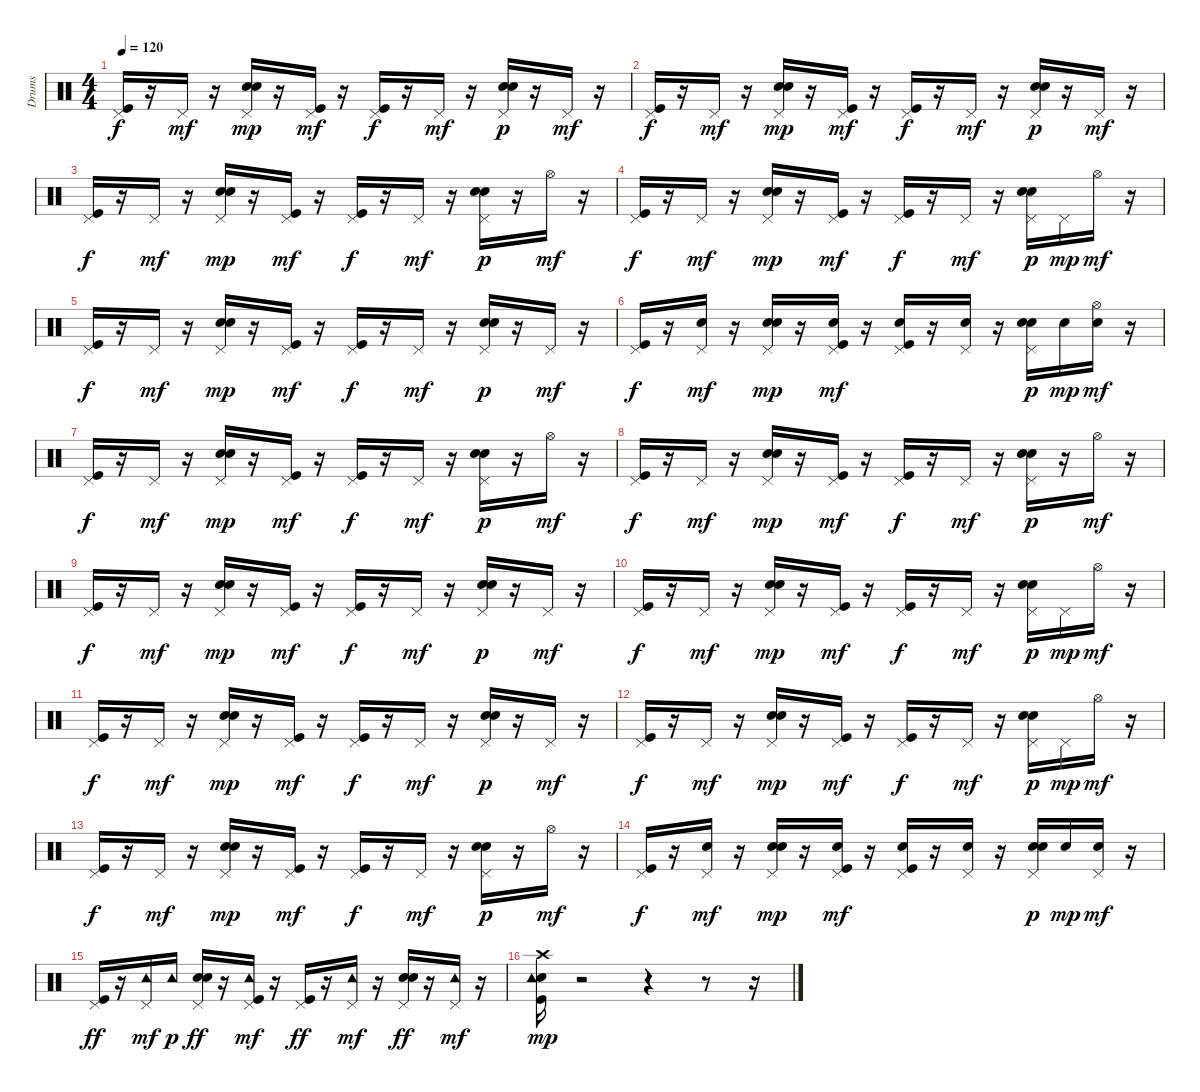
\track ("Drums   " "Drums   ") {instrument percussion}
\staff {score}
\articulation defaults
\ts (4 4)
\tempo 120
\clef neutral
\ks c
("Kick (hit)" "Pedal Hi-Hat (hit)").16{dy f} r.16 "Pedal Hi-Hat (hit)".16{dy mf} r.16 ("Electric Snare (hit)" "Pedal Hi-Hat (hit)" "Hand Clap (hit)").16{dy mp} r.16 ("Kick (hit)" "Pedal Hi-Hat (hit)").16{dy mf} r.16 ("Kick (hit)" "Pedal Hi-Hat (hit)").16{dy f} r.16 "Pedal Hi-Hat (hit)".16{dy mf} r.16 ("Electric Snare (hit)" "Pedal Hi-Hat (hit)" "Hand Clap (hit)").16{dy p} r.16 "Pedal Hi-Hat (hit)".16{dy mf} r.16 |
("Kick (hit)" "Pedal Hi-Hat (hit)").16{dy f} r.16 "Pedal Hi-Hat (hit)".16{dy mf} r.16 ("Electric Snare (hit)" "Pedal Hi-Hat (hit)" "Hand Clap (hit)").16{dy mp} r.16 ("Kick (hit)" "Pedal Hi-Hat (hit)").16{dy mf} r.16 ("Kick (hit)" "Pedal Hi-Hat (hit)").16{dy f} r.16 "Pedal Hi-Hat (hit)".16{dy mf} r.16 ("Electric Snare (hit)" "Pedal Hi-Hat (hit)" "Hand Clap (hit)").16{dy p} r.16 "Pedal Hi-Hat (hit)".16{dy mf} r.16 |
("Kick (hit)" "Pedal Hi-Hat (hit)").16{dy f} r.16 "Pedal Hi-Hat (hit)".16{dy mf} r.16 ("Electric Snare (hit)" "Pedal Hi-Hat (hit)" "Hand Clap (hit)").16{dy mp} r.16 ("Kick (hit)" "Pedal Hi-Hat (hit)").16{dy mf} r.16 ("Kick (hit)" "Pedal Hi-Hat (hit)").16{dy f} r.16 "Pedal Hi-Hat (hit)".16{dy mf} r.16 ("Electric Snare (hit)" "Pedal Hi-Hat (hit)" "Hand Clap (hit)").16{dy p} r.16 "Hi-Hat (open)".16{dy mf} r.16 |
("Kick (hit)" "Pedal Hi-Hat (hit)").16{dy f} r.16 "Pedal Hi-Hat (hit)".16{dy mf} r.16 ("Electric Snare (hit)" "Pedal Hi-Hat (hit)" "Hand Clap (hit)").16{dy mp} r.16 ("Kick (hit)" "Pedal Hi-Hat (hit)").16{dy mf} r.16 ("Kick (hit)" "Pedal Hi-Hat (hit)").16{dy f} r.16 "Pedal Hi-Hat (hit)".16{dy mf} r.16 ("Electric Snare (hit)" "Pedal Hi-Hat (hit)" "Hand Clap (hit)").16{dy p} "Pedal Hi-Hat (hit)".16{dy mp} "Hi-Hat (open)".16{dy mf} r.16 |
("Kick (hit)" "Pedal Hi-Hat (hit)").16{dy f} r.16 "Pedal Hi-Hat (hit)".16{dy mf} r.16 ("Electric Snare (hit)" "Pedal Hi-Hat (hit)" "Hand Clap (hit)").16{dy mp} r.16 ("Kick (hit)" "Pedal Hi-Hat (hit)").16{dy mf} r.16 ("Kick (hit)" "Pedal Hi-Hat (hit)").16{dy f} r.16 "Pedal Hi-Hat (hit)".16{dy mf} r.16 ("Electric Snare (hit)" "Pedal Hi-Hat (hit)" "Hand Clap (hit)").16{dy p} r.16 "Pedal Hi-Hat (hit)".16{dy mf} r.16 |
("Kick (hit)" "Pedal Hi-Hat (hit)").16{dy f} r.16 ("Electric Snare (hit)" "Pedal Hi-Hat (hit)").16{dy mf} r.16 ("Electric Snare (hit)" "Pedal Hi-Hat (hit)" "Hand Clap (hit)").16{dy mp} r.16 ("Kick (hit)" "Electric Snare (hit)" "Pedal Hi-Hat (hit)").16{dy mf} r.16 ("Kick (hit)" "Electric Snare (hit)" "Pedal Hi-Hat (hit)").16 r.16 ("Electric Snare (hit)" "Pedal Hi-Hat (hit)").16 r.16 ("Electric Snare (hit)" "Pedal Hi-Hat (hit)" "Hand Clap (hit)").16{dy p} "Electric Snare (hit)".16{dy mp} ("Hi-Hat (open)" "Electric Snare (hit)").16{dy mf} r.16 |
("Kick (hit)" "Pedal Hi-Hat (hit)").16{dy f} r.16 "Pedal Hi-Hat (hit)".16{dy mf} r.16 ("Electric Snare (hit)" "Pedal Hi-Hat (hit)" "Hand Clap (hit)").16{dy mp} r.16 ("Kick (hit)" "Pedal Hi-Hat (hit)").16{dy mf} r.16 ("Kick (hit)" "Pedal Hi-Hat (hit)").16{dy f} r.16 "Pedal Hi-Hat (hit)".16{dy mf} r.16 ("Electric Snare (hit)" "Pedal Hi-Hat (hit)" "Hand Clap (hit)").16{dy p} r.16 "Hi-Hat (open)".16{dy mf} r.16 |
("Kick (hit)" "Pedal Hi-Hat (hit)").16{dy f} r.16 "Pedal Hi-Hat (hit)".16{dy mf} r.16 ("Electric Snare (hit)" "Pedal Hi-Hat (hit)" "Hand Clap (hit)").16{dy mp} r.16 ("Kick (hit)" "Pedal Hi-Hat (hit)").16{dy mf} r.16 ("Kick (hit)" "Pedal Hi-Hat (hit)").16{dy f} r.16 "Pedal Hi-Hat (hit)".16{dy mf} r.16 ("Electric Snare (hit)" "Pedal Hi-Hat (hit)" "Hand Clap (hit)").16{dy p} r.16 "Hi-Hat (open)".16{dy mf} r.16 |
("Kick (hit)" "Pedal Hi-Hat (hit)").16{dy f} r.16 "Pedal Hi-Hat (hit)".16{dy mf} r.16 ("Electric Snare (hit)" "Pedal Hi-Hat (hit)" "Hand Clap (hit)").16{dy mp} r.16 ("Kick (hit)" "Pedal Hi-Hat (hit)").16{dy mf} r.16 ("Kick (hit)" "Pedal Hi-Hat (hit)").16{dy f} r.16 "Pedal Hi-Hat (hit)".16{dy mf} r.16 ("Electric Snare (hit)" "Pedal Hi-Hat (hit)" "Hand Clap (hit)").16{dy p} r.16 "Pedal Hi-Hat (hit)".16{dy mf} r.16 |
("Kick (hit)" "Pedal Hi-Hat (hit)").16{dy f} r.16 "Pedal Hi-Hat (hit)".16{dy mf} r.16 ("Electric Snare (hit)" "Pedal Hi-Hat (hit)" "Hand Clap (hit)").16{dy mp} r.16 ("Kick (hit)" "Pedal Hi-Hat (hit)").16{dy mf} r.16 ("Kick (hit)" "Pedal Hi-Hat (hit)").16{dy f} r.16 "Pedal Hi-Hat (hit)".16{dy mf} r.16 ("Electric Snare (hit)" "Pedal Hi-Hat (hit)" "Hand Clap (hit)").16{dy p} "Pedal Hi-Hat (hit)".16{dy mp} "Hi-Hat (open)".16{dy mf} r.16 |
("Kick (hit)" "Pedal Hi-Hat (hit)").16{dy f} r.16 "Pedal Hi-Hat (hit)".16{dy mf} r.16 ("Electric Snare (hit)" "Pedal Hi-Hat (hit)" "Hand Clap (hit)").16{dy mp} r.16 ("Kick (hit)" "Pedal Hi-Hat (hit)").16{dy mf} r.16 ("Kick (hit)" "Pedal Hi-Hat (hit)").16{dy f} r.16 "Pedal Hi-Hat (hit)".16{dy mf} r.16 ("Electric Snare (hit)" "Pedal Hi-Hat (hit)" "Hand Clap (hit)").16{dy p} r.16 "Pedal Hi-Hat (hit)".16{dy mf} r.16 |
("Kick (hit)" "Pedal Hi-Hat (hit)").16{dy f} r.16 "Pedal Hi-Hat (hit)".16{dy mf} r.16 ("Electric Snare (hit)" "Pedal Hi-Hat (hit)" "Hand Clap (hit)").16{dy mp} r.16 ("Kick (hit)" "Pedal Hi-Hat (hit)").16{dy mf} r.16 ("Kick (hit)" "Pedal Hi-Hat (hit)").16{dy f} r.16 "Pedal Hi-Hat (hit)".16{dy mf} r.16 ("Electric Snare (hit)" "Pedal Hi-Hat (hit)" "Hand Clap (hit)").16{dy p} "Pedal Hi-Hat (hit)".16{dy mp} "Hi-Hat (open)".16{dy mf} r.16 |
("Kick (hit)" "Pedal Hi-Hat (hit)").16{dy f} r.16 "Pedal Hi-Hat (hit)".16{dy mf} r.16 ("Electric Snare (hit)" "Pedal Hi-Hat (hit)" "Hand Clap (hit)").16{dy mp} r.16 ("Kick (hit)" "Pedal Hi-Hat (hit)").16{dy mf} r.16 ("Kick (hit)" "Pedal Hi-Hat (hit)").16{dy f} r.16 "Pedal Hi-Hat (hit)".16{dy mf} r.16 ("Electric Snare (hit)" "Pedal Hi-Hat (hit)" "Hand Clap (hit)").16{dy p} r.16 "Hi-Hat (open)".16{dy mf} r.16 |
("Kick (hit)" "Pedal Hi-Hat (hit)").16{dy f} r.16 ("Electric Snare (hit)" "Pedal Hi-Hat (hit)").16{dy mf} r.16 ("Electric Snare (hit)" "Pedal Hi-Hat (hit)" "Hand Clap (hit)").16{dy mp} r.16 ("Kick (hit)" "Electric Snare (hit)" "Pedal Hi-Hat (hit)").16{dy mf} r.16 ("Kick (hit)" "Electric Snare (hit)" "Pedal Hi-Hat (hit)").16 r.16 ("Electric Snare (hit)" "Pedal Hi-Hat (hit)").16 r.16 ("Electric Snare (hit)" "Pedal Hi-Hat (hit)" "Hand Clap (hit)").16{dy p} "Electric Snare (hit)".16{dy mp} ("Electric Snare (hit)" "Pedal Hi-Hat (hit)").16{dy mf} r.16 |
("Kick (hit)" "Pedal Hi-Hat (hit)").16{dy ff} r.16 ("Pedal Hi-Hat (hit)" "Tambourine (hit)").16{dy mf} "Tambourine (hit)".16{dy p} ("Electric Snare (hit)" "Pedal Hi-Hat (hit)" "Hand Clap (hit)").16{dy ff} r.16 ("Kick (hit)" "Pedal Hi-Hat (hit)" "Tambourine (hit)").16{dy mf} r.16 ("Kick (hit)" "Pedal Hi-Hat (hit)").16{dy ff} r.16 ("Pedal Hi-Hat (hit)" "Tambourine (hit)").16{dy mf} r.16 ("Electric Snare (hit)" "Pedal Hi-Hat (hit)" "Hand Clap (hit)").16{dy ff} r.16 ("Pedal Hi-Hat (hit)" "Tambourine (hit)").16{dy mf} r.16 |
("Kick (hit)" "Crash high (hit)" "Electric Snare (hit)" "Tambourine (hit)").16{dy mp} r.2 r.4 r.8 r.16
